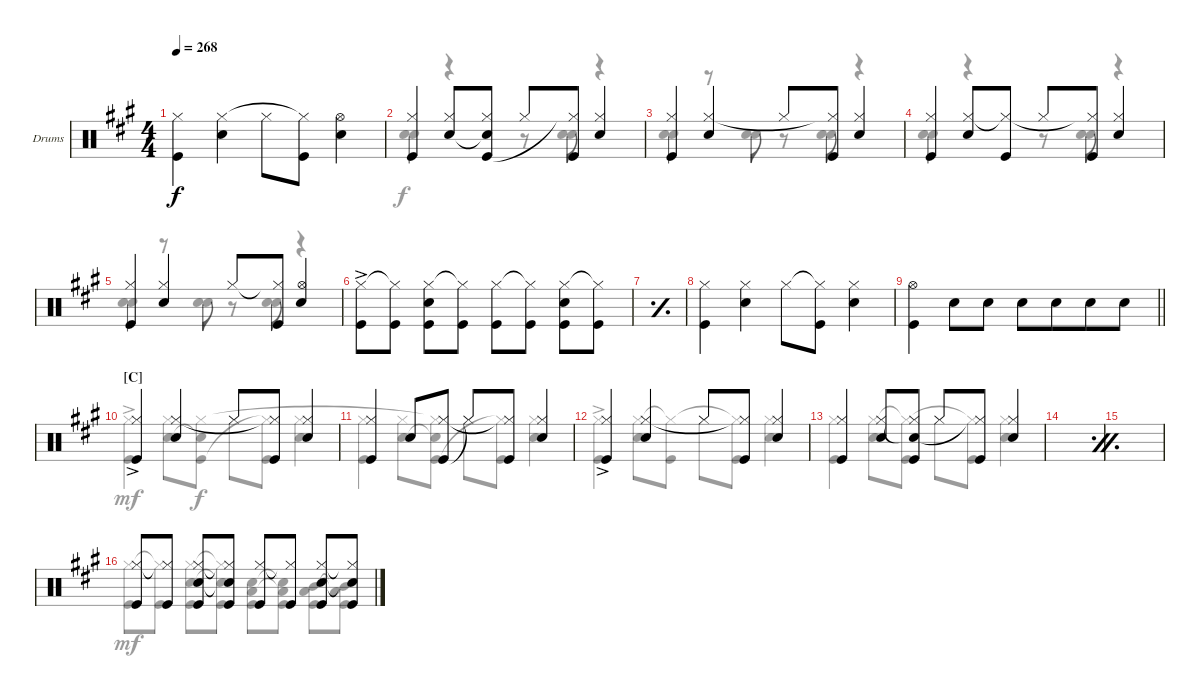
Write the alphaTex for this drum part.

\defaultSystemsLayout 4
\bracketExtendMode groupsimilarinstruments
\firstSystemTrackNameOrientation horizontal
\otherSystemsTrackNameOrientation horizontal
\track ("Stefan Kaufmann" "Drums") {instrument percussion}
\staff {score}
\articulation defaults
\voice
\ts (4 4)
\tempo 268
\clef neutral
\ks a
("Kick (hit)" "Hi-Hat (closed)").4{dy f} ("Snare (hit) 2" "Hi-Hat (closed)").4 "Hi-Hat (closed)".8 ("Kick (hit)" "Hi-Hat (closed)"{t}).8 ("Snare (hit) 2" "Hi-Hat (open)").4 |
("Kick (hit)" "Hi-Hat (closed)").4 ("Snare (hit) 2" "Hi-Hat (closed)").8 ("Snare (hit) 2"{t} "Kick (hit)" "Hi-Hat (closed)").8 "Hi-Hat (closed)".8 ("Kick (hit)" "Hi-Hat (closed)"{t}).8 ("Snare (hit) 2" "Hi-Hat (closed)").4 |
("Kick (hit)" "Hi-Hat (closed)").4 ("Snare (hit) 2" "Hi-Hat (closed)").4 "Hi-Hat (closed)".8 ("Kick (hit)" "Hi-Hat (closed)"{t}).8 ("Snare (hit) 2" "Hi-Hat (closed)").4 |
("Kick (hit)" "Hi-Hat (closed)").4 ("Snare (hit) 2" "Hi-Hat (closed)").8 ("Kick (hit)" "Hi-Hat (closed)"{t}).8 "Hi-Hat (closed)".8 ("Kick (hit)" "Hi-Hat (closed)"{t}).8 ("Snare (hit) 2" "Hi-Hat (closed)").4 |
("Hi-Hat (closed)" "Kick (hit)").4 ("Hi-Hat (closed)" "Snare (hit) 2").4 "Hi-Hat (closed)".8 ("Hi-Hat (closed)"{t} "Kick (hit)").8 ("Hi-Hat (open)" "Snare (hit) 2").4 |
("Kick (hit)" "Hi-Hat (closed)"{ac}).8 ("Kick (hit)" "Hi-Hat (closed)"{t}).8 ("Kick (hit)" "Hi-Hat (closed)" "Snare (hit) 2").8 ("Kick (hit)" "Hi-Hat (closed)"{t}).8 ("Kick (hit)" "Hi-Hat (closed)").8 ("Kick (hit)" "Hi-Hat (closed)"{t}).8 ("Kick (hit)" "Hi-Hat (closed)" "Snare (hit) 2").8 ("Kick (hit)" "Hi-Hat (closed)"{t}).8 |
\simile simple
|
\simile none
("Hi-Hat (closed)" "Kick (hit)").4 ("Snare (hit) 2" "Hi-Hat (closed)").4 "Hi-Hat (closed)".8 ("Hi-Hat (closed)"{t} "Kick (hit)").8 ("Snare (hit) 2" "Hi-Hat (closed)").4 |
\barLineRight lightlight
("Hi-Hat (open)" "Kick (hit)").4 "Snare (hit) 2".8 "Snare (hit) 2".8 "Snare (hit) 2".8 "Snare (hit) 2".8{beam merge} "Snare (hit) 2".8 "Snare (hit) 2".8 |
\section ("C" "")
("Kick (hit)"{ac} "Hi-Hat (closed)"{ac}).4 ("Snare (hit) 2" "Hi-Hat (closed)").4 "Hi-Hat (closed)".8 ("Kick (hit)" "Hi-Hat (closed)"{t}).8 ("Snare (hit) 2" "Hi-Hat (closed)").4 |
("Kick (hit)" "Hi-Hat (closed)").4 "Snare (hit) 2".8 ("Kick (hit)" "Hi-Hat (closed)").8 "Hi-Hat (closed)"{t}.8 ("Kick (hit)" "Hi-Hat (closed)"{t}).8 ("Snare (hit) 2" "Hi-Hat (closed)").4 |
("Hi-Hat (closed)"{ac} "Kick (hit)").4 ("Snare (hit) 2" "Hi-Hat (closed)").4 "Hi-Hat (closed)".8 ("Kick (hit)" "Hi-Hat (closed)"{t}).8 ("Snare (hit) 2" "Hi-Hat (closed)").4 |
("Kick (hit)" "Hi-Hat (closed)").4 ("Snare (hit) 2" "Hi-Hat (closed)").8 ("Kick (hit)" "Snare (hit) 2"{t} "Hi-Hat (closed)").8 "Hi-Hat (closed)".8 ("Kick (hit)" "Hi-Hat (closed)"{t}).8 ("Snare (hit) 2" "Hi-Hat (closed)").4 |
\simile firstofdouble
|
\simile secondofdouble
|
\simile none
("Kick (hit)" "Hi-Hat (closed)").8 ("Kick (hit)" "Hi-Hat (closed)"{t}).8 ("Kick (hit)" "Snare (hit) 2" "Hi-Hat (closed)").8 ("Kick (hit)" "Snare (hit) 2"{t} "Hi-Hat (closed)"{t}).8 ("Kick (hit)" "Hi-Hat (closed)").8 ("Kick (hit)" "Hi-Hat (closed)"{t}).8 ("Kick (hit)" "Snare (hit) 2" "Hi-Hat (closed)").8 ("Kick (hit)" "Snare (hit) 2"{t} "Hi-Hat (closed)"{t}).8
\voice
\clef neutral
\ottava regular
\simile none
\ks a
|
"Snare (hit) 2".4{dy f} r.4 r.8 "Snare (hit) 2".8 r.4 |
"Snare (hit) 2".4 r.8 "Snare (hit) 2".8 r.8 "Snare (hit) 2".8 r.4 |
"Snare (hit) 2".4 r.4 r.8 "Snare (hit) 2".8 r.4 |
"Snare (hit) 2".4 r.8 "Snare (hit) 2".8 r.8 "Snare (hit) 2".8 r.4 |
|
\simile simple
|
\simile none
|
\barLineRight lightlight
|
("Kick (hit)"{ac} "Hi-Hat (closed)"{ac}).4{dy mf} ("Snare (hit) 2" "Hi-Hat (closed)").8 ("Snare (hit) 2"{t} "Kick (hit)" "Hi-Hat (closed)").8{dy f} "Hi-Hat (closed)".8 ("Kick (hit)" "Hi-Hat (closed)"{t}).8 ("Snare (hit) 2" "Hi-Hat (closed)").4 |
("Kick (hit)" "Hi-Hat (closed)").4 ("Snare (hit) 2" "Hi-Hat (closed)").8 ("Snare (hit) 2"{t} "Kick (hit)" "Hi-Hat (closed)"{t}).8 "Hi-Hat (closed)".8 ("Kick (hit)" "Hi-Hat (closed)"{t}).8 ("Snare (hit) 2" "Hi-Hat (closed)").4 |
("Kick (hit)" "Hi-Hat (closed)"{ac}).4 ("Snare (hit) 2" "Hi-Hat (closed)").8 ("Kick (hit)" "Hi-Hat (closed)"{t}).8 "Hi-Hat (closed)".8 ("Kick (hit)" "Hi-Hat (closed)"{t}).8 ("Snare (hit) 2" "Hi-Hat (closed)").4 |
("Kick (hit)" "Hi-Hat (closed)").4 ("Snare (hit) 2" "Hi-Hat (closed)").8 ("Kick (hit)" "Hi-Hat (closed)"{t}).8 "Hi-Hat (closed)".8 ("Kick (hit)" "Hi-Hat (closed)"{t}).8 ("Snare (hit) 2" "Hi-Hat (closed)").4 |
\simile firstofdouble
|
\simile secondofdouble
|
\simile none
("Kick (hit)" "Hi-Hat (closed)").8{dy mf} ("Kick (hit)" "Hi-Hat (closed)"{t}).8 ("Kick (hit)" "Hi-Hat (closed)" "Snare (hit) 2").8 ("Kick (hit)" "Hi-Hat (closed)"{t} "Snare (hit) 2"{t}).8 ("Kick (hit)" "Snare (hit) 2" "Low Tom (hit)").8 ("Kick (hit)" "Snare (hit) 2"{t} "Low Tom (hit)"{t}).8 ("Kick (hit)" "Low Tom (hit)" "Mid Tom (hit)").8 ("Kick (hit)" "Low Tom (hit)"{t} "Mid Tom (hit)"{t}).8
\voice
\clef neutral
\ottava regular
\simile none
\ks a
|
"Snare (hit) 2".4{dy f} r.4 r.8 "Snare (hit) 2".8 r.4 |
"Snare (hit) 2".4 r.8 "Snare (hit) 2".8 r.8 "Snare (hit) 2".8 r.4 |
"Snare (hit) 2".4 r.4 r.8 "Snare (hit) 2".8 r.4 |
"Snare (hit) 2".4 r.8 "Snare (hit) 2".8 r.8 "Snare (hit) 2".8 r.4 |
|
\simile simple
|
\simile none
|
\barLineRight lightlight
|
|
|
|
|
\simile firstofdouble
|
\simile secondofdouble
|
\simile none
